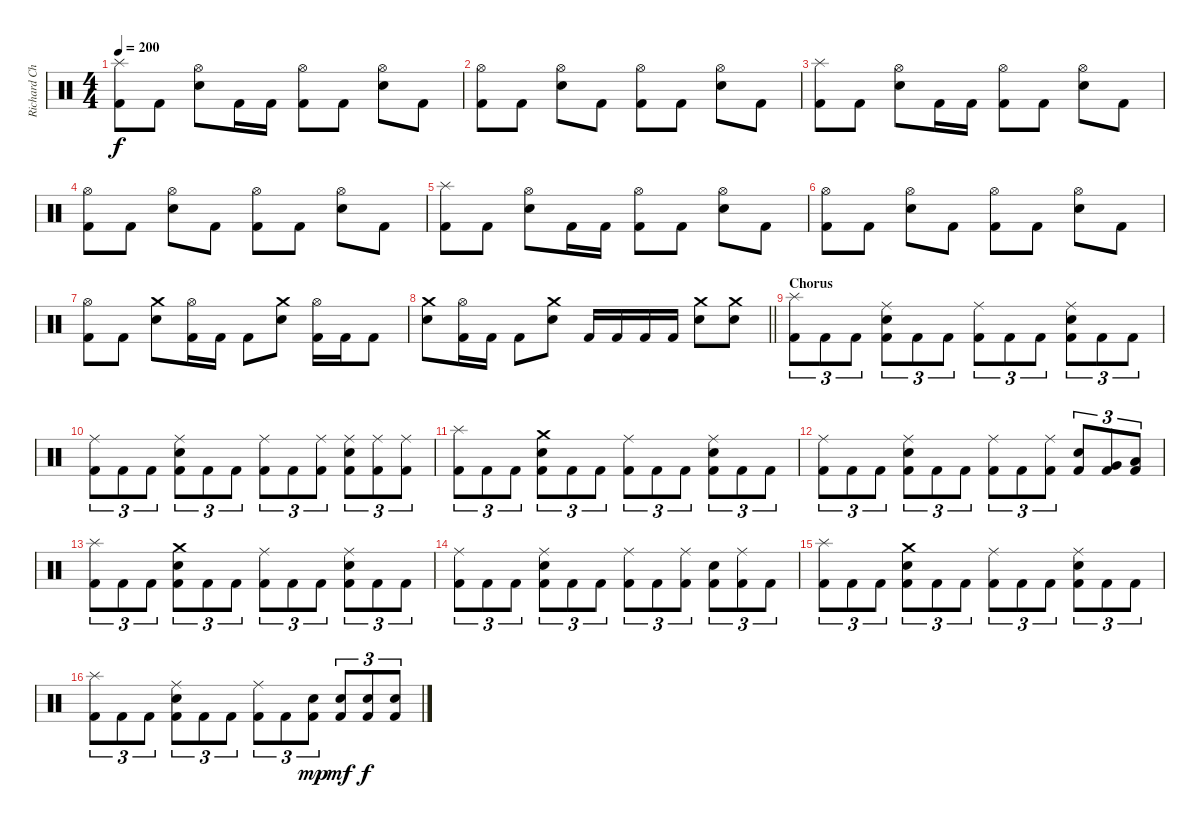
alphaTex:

\track ("Richard Christy" "Richard Ch") {instrument percussion}
\staff {score}
\articulation defaults
\ts (4 4)
\tempo 200
\clef neutral
\ks c
("Splash (hit)" "Kick (hit) 2").8{dy f} "Kick (hit) 2".8 ("Hi-Hat (open)" "Electric Snare (hit)").8 "Kick (hit) 2".16 "Kick (hit) 2".16 ("Hi-Hat (open)" "Kick (hit) 2").8 "Kick (hit) 2".8 ("Hi-Hat (open)" "Electric Snare (hit)").8 "Kick (hit) 2".8 |
("Hi-Hat (open)" "Kick (hit) 2").8 "Kick (hit) 2".8 ("Hi-Hat (open)" "Electric Snare (hit)").8 "Kick (hit) 2".8 ("Hi-Hat (open)" "Kick (hit) 2").8 "Kick (hit) 2".8 ("Hi-Hat (open)" "Electric Snare (hit)").8 "Kick (hit) 2".8 |
("Splash (hit)" "Kick (hit) 2").8 "Kick (hit) 2".8 ("Hi-Hat (open)" "Electric Snare (hit)").8 "Kick (hit) 2".16 "Kick (hit) 2".16 ("Hi-Hat (open)" "Kick (hit) 2").8 "Kick (hit) 2".8 ("Hi-Hat (open)" "Electric Snare (hit)").8 "Kick (hit) 2".8 |
("Hi-Hat (open)" "Kick (hit) 2").8 "Kick (hit) 2".8 ("Hi-Hat (open)" "Electric Snare (hit)").8 "Kick (hit) 2".8 ("Hi-Hat (open)" "Kick (hit) 2").8 "Kick (hit) 2".8 ("Hi-Hat (open)" "Electric Snare (hit)").8 "Kick (hit) 2".8 |
("Splash (hit)" "Kick (hit) 2").8 "Kick (hit) 2".8 ("Hi-Hat (open)" "Electric Snare (hit)").8 "Kick (hit) 2".16 "Kick (hit) 2".16 ("Hi-Hat (open)" "Kick (hit) 2").8 "Kick (hit) 2".8 ("Hi-Hat (open)" "Electric Snare (hit)").8 "Kick (hit) 2".8 |
("Hi-Hat (open)" "Kick (hit) 2").8 "Kick (hit) 2".8 ("Hi-Hat (open)" "Electric Snare (hit)").8 "Kick (hit) 2".8 ("Hi-Hat (open)" "Kick (hit) 2").8 "Kick (hit) 2".8 ("Hi-Hat (open)" "Electric Snare (hit)").8 "Kick (hit) 2".8 |
("Hi-Hat (open)" "Kick (hit) 2").8 "Kick (hit) 2".8 ("Crash medium (hit)" "Electric Snare (hit)").8 ("Hi-Hat (open)" "Kick (hit) 2").16 "Kick (hit) 2".16 "Kick (hit) 2".8 ("Crash medium (hit)" "Electric Snare (hit)").8 ("Hi-Hat (open)" "Kick (hit) 2").16 "Kick (hit) 2".16 "Kick (hit) 2".8 |
\barLineRight lightlight
("Crash medium (hit)" "Electric Snare (hit)").8 ("Hi-Hat (open)" "Kick (hit) 2").16 "Kick (hit) 2".16 "Kick (hit) 2".8 ("Crash medium (hit)" "Electric Snare (hit)").8 "Kick (hit) 2".16 "Kick (hit) 2".16 "Kick (hit) 2".16 "Kick (hit) 2".16 ("Crash medium (hit)" "Electric Snare (hit)").8 ("Crash medium (hit)" "Electric Snare (hit)").8 |
\section ("" "Chorus")
("Splash (hit)" "Kick (hit) 2").8{tu (3 2)} "Kick (hit) 2".8{tu (3 2)} "Kick (hit) 2".8{tu (3 2)} ("Ride (middle)" "Electric Snare (hit)" "Kick (hit) 2").8{tu (3 2)} "Kick (hit) 2".8{tu (3 2)} "Kick (hit) 2".8{tu (3 2)} ("Ride (middle)" "Kick (hit) 2").8{tu (3 2)} "Kick (hit) 2".8{tu (3 2)} "Kick (hit) 2".8{tu (3 2)} ("Ride (middle)" "Electric Snare (hit)" "Kick (hit) 2").8{tu (3 2)} "Kick (hit) 2".8{tu (3 2)} "Kick (hit) 2".8{tu (3 2)} |
("Ride (middle)" "Kick (hit) 2").8{tu (3 2)} "Kick (hit) 2".8{tu (3 2)} "Kick (hit) 2".8{tu (3 2)} ("Ride (middle)" "Electric Snare (hit)" "Kick (hit) 2").8{tu (3 2)} "Kick (hit) 2".8{tu (3 2)} "Kick (hit) 2".8{tu (3 2)} ("Ride (middle)" "Kick (hit) 2").8{tu (3 2)} "Kick (hit) 2".8{tu (3 2)} ("Ride (middle)" "Kick (hit) 2").8{tu (3 2)} ("Ride (middle)" "Electric Snare (hit)" "Kick (hit) 2").8{tu (3 2)} ("Ride (middle)" "Kick (hit) 2").8{tu (3 2)} ("Ride (middle)" "Kick (hit) 2").8{tu (3 2)} |
("Splash (hit)" "Kick (hit) 2").8{tu (3 2)} "Kick (hit) 2".8{tu (3 2)} "Kick (hit) 2".8{tu (3 2)} ("Crash medium (hit)" "Electric Snare (hit)" "Kick (hit) 2").8{tu (3 2)} "Kick (hit) 2".8{tu (3 2)} "Kick (hit) 2".8{tu (3 2)} ("Ride (middle)" "Kick (hit) 2").8{tu (3 2)} "Kick (hit) 2".8{tu (3 2)} "Kick (hit) 2".8{tu (3 2)} ("Ride (middle)" "Electric Snare (hit)" "Kick (hit) 2").8{tu (3 2)} "Kick (hit) 2".8{tu (3 2)} "Kick (hit) 2".8{tu (3 2)} |
("Ride (middle)" "Kick (hit) 2").8{tu (3 2)} "Kick (hit) 2".8{tu (3 2)} "Kick (hit) 2".8{tu (3 2)} ("Ride (middle)" "Electric Snare (hit)" "Kick (hit) 2").8{tu (3 2)} "Kick (hit) 2".8{tu (3 2)} "Kick (hit) 2".8{tu (3 2)} ("Ride (middle)" "Kick (hit) 2").8{tu (3 2)} "Kick (hit) 2".8{tu (3 2)} ("Ride (middle)" "Kick (hit) 2").8{tu (3 2)} ("Electric Snare (hit)" "Kick (hit) 2").8{tu (3 2)} ("Very Low Tom (hit)" "Kick (hit) 2").8{tu (3 2)} ("Low Floor Tom (hit)" "Kick (hit) 2").8{tu (3 2)} |
("Splash (hit)" "Kick (hit) 2").8{tu (3 2)} "Kick (hit) 2".8{tu (3 2)} "Kick (hit) 2".8{tu (3 2)} ("Crash medium (hit)" "Electric Snare (hit)" "Kick (hit) 2").8{tu (3 2)} "Kick (hit) 2".8{tu (3 2)} "Kick (hit) 2".8{tu (3 2)} ("Ride (middle)" "Kick (hit) 2").8{tu (3 2)} "Kick (hit) 2".8{tu (3 2)} "Kick (hit) 2".8{tu (3 2)} ("Ride (middle)" "Electric Snare (hit)" "Kick (hit) 2").8{tu (3 2)} "Kick (hit) 2".8{tu (3 2)} "Kick (hit) 2".8{tu (3 2)} |
("Ride (middle)" "Kick (hit) 2").8{tu (3 2)} "Kick (hit) 2".8{tu (3 2)} "Kick (hit) 2".8{tu (3 2)} ("Ride (middle)" "Electric Snare (hit)" "Kick (hit) 2").8{tu (3 2)} "Kick (hit) 2".8{tu (3 2)} "Kick (hit) 2".8{tu (3 2)} ("Ride (middle)" "Kick (hit) 2").8{tu (3 2)} "Kick (hit) 2".8{tu (3 2)} ("Ride (middle)" "Kick (hit) 2").8{tu (3 2)} ("Electric Snare (hit)" "Kick (hit) 2").8{tu (3 2)} ("Ride (middle)" "Kick (hit) 2").8{tu (3 2)} "Kick (hit) 2".8{tu (3 2)} |
("Splash (hit)" "Kick (hit) 2").8{tu (3 2)} "Kick (hit) 2".8{tu (3 2)} "Kick (hit) 2".8{tu (3 2)} ("Crash medium (hit)" "Electric Snare (hit)" "Kick (hit) 2").8{tu (3 2)} "Kick (hit) 2".8{tu (3 2)} "Kick (hit) 2".8{tu (3 2)} ("Ride (middle)" "Kick (hit) 2").8{tu (3 2)} "Kick (hit) 2".8{tu (3 2)} "Kick (hit) 2".8{tu (3 2)} ("Ride (middle)" "Electric Snare (hit)" "Kick (hit) 2").8{tu (3 2)} "Kick (hit) 2".8{tu (3 2)} "Kick (hit) 2".8{tu (3 2)} |
("Splash (hit)" "Kick (hit) 2").8{tu (3 2)} "Kick (hit) 2".8{tu (3 2)} "Kick (hit) 2".8{tu (3 2)} ("Ride (middle)" "Electric Snare (hit)" "Kick (hit) 2").8{tu (3 2)} "Kick (hit) 2".8{tu (3 2)} "Kick (hit) 2".8{tu (3 2)} ("Ride (middle)" "Kick (hit) 2").8{tu (3 2)} "Kick (hit) 2".8{tu (3 2)} ("Electric Snare (hit)" "Kick (hit) 2").8{tu (3 2) dy mp} ("Electric Snare (hit)" "Kick (hit) 2").8{tu (3 2) dy mf} ("Electric Snare (hit)" "Kick (hit) 2").8{tu (3 2) dy f} ("Electric Snare (hit)" "Kick (hit) 2").8{tu (3 2)}
